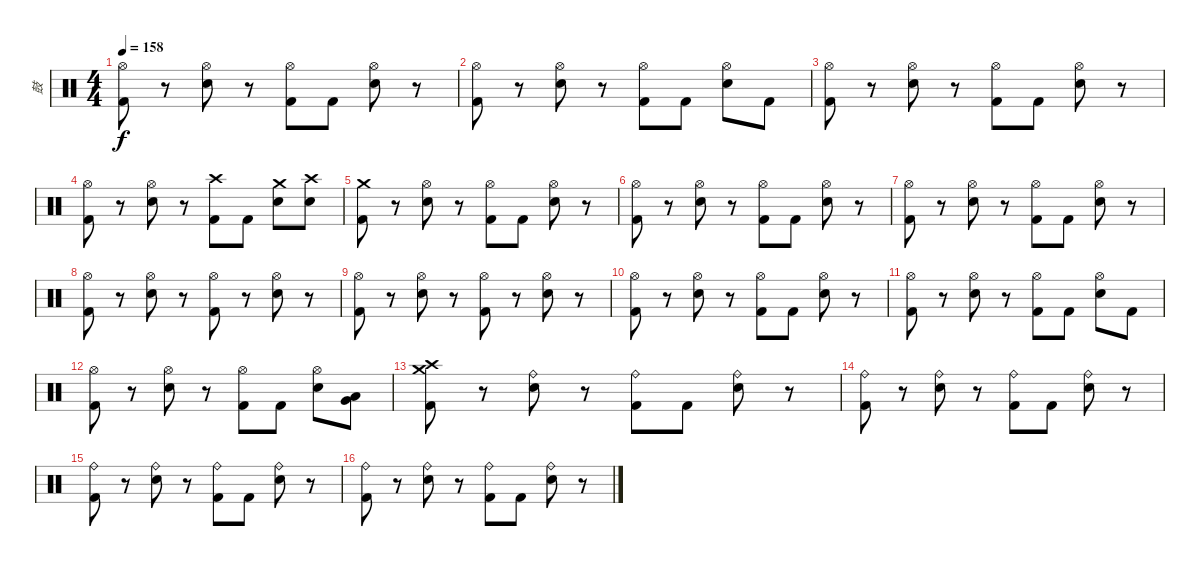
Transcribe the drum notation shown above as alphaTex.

\track ("鼓" "鼓") {instrument percussion}
\staff {score}
\articulation defaults
\ts (4 4)
\tempo 158
\clef neutral
\ks c
("Hi-Hat (open)" "Kick (hit) 2").8{dy f} r.8 ("Hi-Hat (open)" "Electric Snare (hit)").8 r.8 ("Hi-Hat (open)" "Kick (hit) 2").8 "Kick (hit) 2".8 ("Hi-Hat (open)" "Electric Snare (hit)").8 r.8 |
("Hi-Hat (open)" "Kick (hit) 2").8 r.8 ("Hi-Hat (open)" "Electric Snare (hit)").8 r.8 ("Hi-Hat (open)" "Kick (hit) 2").8 "Kick (hit) 2".8 ("Hi-Hat (open)" "Electric Snare (hit)").8 "Kick (hit) 2".8 |
("Hi-Hat (open)" "Kick (hit) 2").8 r.8 ("Hi-Hat (open)" "Electric Snare (hit)").8 r.8 ("Hi-Hat (open)" "Kick (hit) 2").8 "Kick (hit) 2".8 ("Hi-Hat (open)" "Electric Snare (hit)").8 r.8 |
("Hi-Hat (open)" "Kick (hit) 2").8 r.8 ("Hi-Hat (open)" "Electric Snare (hit)").8 r.8 ("Crash high (hit)" "Kick (hit) 2").8 "Kick (hit) 2".8 ("Crash medium (hit)" "Electric Snare (hit)").8 ("Crash high (hit)" "Electric Snare (hit)").8 |
("Crash medium (hit)" "Kick (hit) 2").8 r.8 ("Hi-Hat (open)" "Electric Snare (hit)").8 r.8 ("Hi-Hat (open)" "Kick (hit) 2").8 "Kick (hit) 2".8 ("Hi-Hat (open)" "Electric Snare (hit)").8 r.8 |
("Hi-Hat (open)" "Kick (hit) 2").8 r.8 ("Hi-Hat (open)" "Electric Snare (hit)").8 r.8 ("Hi-Hat (open)" "Kick (hit) 2").8 "Kick (hit) 2".8 ("Hi-Hat (open)" "Electric Snare (hit)").8 r.8 |
("Hi-Hat (open)" "Kick (hit) 2").8 r.8 ("Hi-Hat (open)" "Electric Snare (hit)").8 r.8 ("Hi-Hat (open)" "Kick (hit) 2").8 "Kick (hit) 2".8 ("Hi-Hat (open)" "Electric Snare (hit)").8 r.8 |
("Hi-Hat (open)" "Kick (hit) 2").8 r.8 ("Hi-Hat (open)" "Electric Snare (hit)").8 r.8 ("Hi-Hat (open)" "Kick (hit) 2").8 r.8 ("Hi-Hat (open)" "Electric Snare (hit)").8 r.8 |
("Hi-Hat (open)" "Kick (hit) 2").8 r.8 ("Hi-Hat (open)" "Electric Snare (hit)").8 r.8 ("Hi-Hat (open)" "Kick (hit) 2").8 r.8 ("Hi-Hat (open)" "Electric Snare (hit)").8 r.8 |
("Hi-Hat (open)" "Kick (hit) 2").8 r.8 ("Hi-Hat (open)" "Electric Snare (hit)").8 r.8 ("Hi-Hat (open)" "Kick (hit) 2").8 "Kick (hit) 2".8 ("Hi-Hat (open)" "Electric Snare (hit)").8 r.8 |
("Hi-Hat (open)" "Kick (hit) 2").8 r.8 ("Hi-Hat (open)" "Electric Snare (hit)").8 r.8 ("Hi-Hat (open)" "Kick (hit) 2").8 "Kick (hit) 2".8 ("Hi-Hat (open)" "Electric Snare (hit)").8 "Kick (hit) 2".8 |
("Hi-Hat (open)" "Kick (hit) 2").8 r.8 ("Hi-Hat (open)" "Electric Snare (hit)").8 r.8 ("Hi-Hat (open)" "Kick (hit) 2").8 "Kick (hit) 2".8 ("Hi-Hat (open)" "Electric Snare (hit)").8 ("Low Tom (hit)" "Very Low Tom (hit)").8 |
("Crash high (hit)" "Crash medium (hit)" "Kick (hit) 2").8 r.8 ("Ride (bell)" "Electric Snare (hit)").8 r.8 ("Ride (bell)" "Kick (hit) 2").8 "Kick (hit) 2".8 ("Ride (bell)" "Electric Snare (hit)").8 r.8 |
("Ride (bell)" "Kick (hit) 2").8 r.8 ("Ride (bell)" "Electric Snare (hit)").8 r.8 ("Ride (bell)" "Kick (hit) 2").8 "Kick (hit) 2".8 ("Ride (bell)" "Electric Snare (hit)").8 r.8 |
("Ride (bell)" "Kick (hit) 2").8 r.8 ("Ride (bell)" "Electric Snare (hit)").8 r.8 ("Ride (bell)" "Kick (hit) 2").8 "Kick (hit) 2".8 ("Ride (bell)" "Electric Snare (hit)").8 r.8 |
("Ride (bell)" "Kick (hit) 2").8 r.8 ("Ride (bell)" "Electric Snare (hit)").8 r.8 ("Ride (bell)" "Kick (hit) 2").8 "Kick (hit) 2".8 ("Ride (bell)" "Electric Snare (hit)").8 r.8
